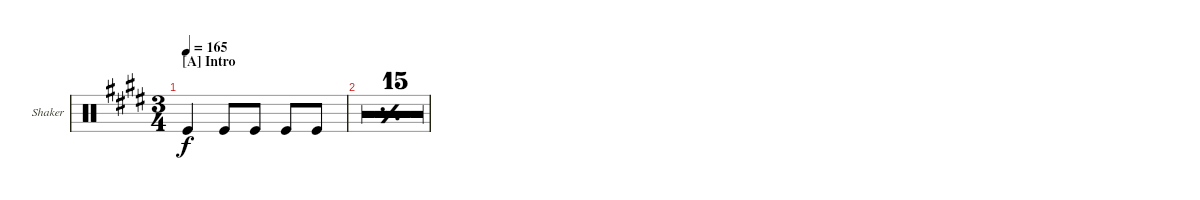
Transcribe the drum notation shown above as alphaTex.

\defaultSystemsLayout 4
\bracketExtendMode groupsimilarinstruments
\firstSystemTrackNameOrientation horizontal
\otherSystemsTrackNameOrientation horizontal
\track ("Shaker" "Shaker") {multiBarRest instrument percussion}
\staff {score}
\articulation defaults
\ts (3 4)
\section ("A" "Intro")
\tempo 165
\clef neutral
\ks e "Kick (hit)".4{dy f} "Kick (hit)".8 "Kick (hit)".8 "Kick (hit)".8 "Kick (hit)".8
|
\simile simple
|
|
|
|
|
|
|
|
|
r.2{d} |
r.2{d} |
r.2{d} |
r.2{d} |
r.2{d} |
r.2{d}
